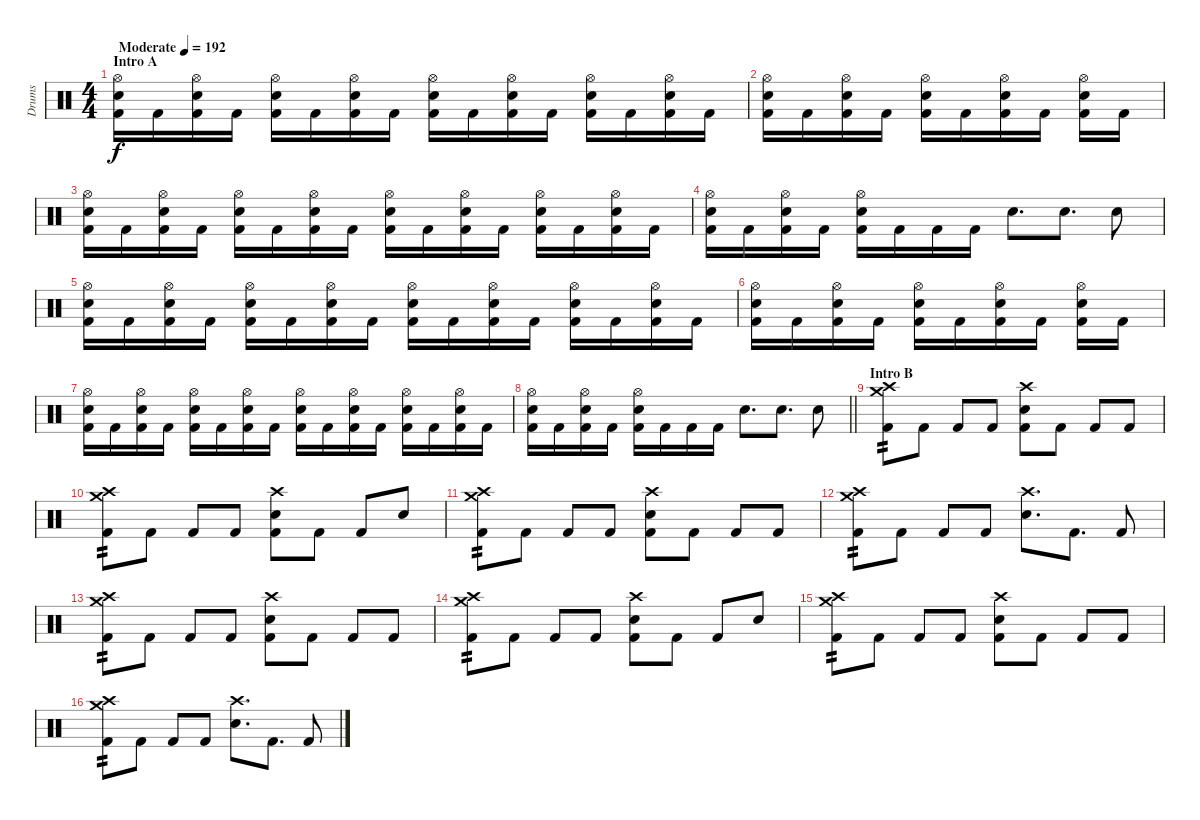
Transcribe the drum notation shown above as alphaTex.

\track ("Drums" "Drums") {instrument percussion}
\staff {score}
\articulation defaults
\ts (4 4)
\section ("" "Intro A")
\tempo (192 "Moderate")
\clef neutral
\ks c
("Hi-Hat (open)" "Snare (hit) 2" "Kick (hit) 2").16{dy f} "Kick (hit) 2".16 ("Hi-Hat (open)" "Snare (hit) 2" "Kick (hit) 2").16 "Kick (hit) 2".16 ("Hi-Hat (open)" "Snare (hit) 2" "Kick (hit) 2").16 "Kick (hit) 2".16 ("Hi-Hat (open)" "Snare (hit) 2" "Kick (hit) 2").16 "Kick (hit) 2".16 ("Hi-Hat (open)" "Snare (hit) 2" "Kick (hit) 2").16 "Kick (hit) 2".16 ("Hi-Hat (open)" "Snare (hit) 2" "Kick (hit) 2").16 "Kick (hit) 2".16 ("Hi-Hat (open)" "Snare (hit) 2" "Kick (hit) 2").16 "Kick (hit) 2".16 ("Hi-Hat (open)" "Snare (hit) 2" "Kick (hit) 2").16 "Kick (hit) 2".16 |
("Hi-Hat (open)" "Snare (hit) 2" "Kick (hit) 2").16 "Kick (hit) 2".16 ("Hi-Hat (open)" "Snare (hit) 2" "Kick (hit) 2").16 "Kick (hit) 2".16 ("Hi-Hat (open)" "Snare (hit) 2" "Kick (hit) 2").16 "Kick (hit) 2".16 ("Hi-Hat (open)" "Snare (hit) 2" "Kick (hit) 2").16 "Kick (hit) 2".16 ("Hi-Hat (open)" "Snare (hit) 2" "Kick (hit) 2").16 "Kick (hit) 2".16 |
("Hi-Hat (open)" "Snare (hit) 2" "Kick (hit) 2").16 "Kick (hit) 2".16 ("Hi-Hat (open)" "Snare (hit) 2" "Kick (hit) 2").16 "Kick (hit) 2".16 ("Hi-Hat (open)" "Snare (hit) 2" "Kick (hit) 2").16 "Kick (hit) 2".16 ("Hi-Hat (open)" "Snare (hit) 2" "Kick (hit) 2").16 "Kick (hit) 2".16 ("Hi-Hat (open)" "Snare (hit) 2" "Kick (hit) 2").16 "Kick (hit) 2".16 ("Hi-Hat (open)" "Snare (hit) 2" "Kick (hit) 2").16 "Kick (hit) 2".16 ("Hi-Hat (open)" "Snare (hit) 2" "Kick (hit) 2").16 "Kick (hit) 2".16 ("Hi-Hat (open)" "Snare (hit) 2" "Kick (hit) 2").16 "Kick (hit) 2".16 |
("Hi-Hat (open)" "Snare (hit) 2" "Kick (hit) 2").16 "Kick (hit) 2".16 ("Hi-Hat (open)" "Snare (hit) 2" "Kick (hit) 2").16 "Kick (hit) 2".16 ("Hi-Hat (open)" "Snare (hit) 2" "Kick (hit) 2").16 "Kick (hit) 2".16 "Kick (hit) 2".16 "Kick (hit) 2".16 "Snare (hit) 2".8{d} "Snare (hit) 2".8{d} "Snare (hit) 2".8 |
("Hi-Hat (open)" "Snare (hit) 2" "Kick (hit) 2").16 "Kick (hit) 2".16 ("Hi-Hat (open)" "Snare (hit) 2" "Kick (hit) 2").16 "Kick (hit) 2".16 ("Hi-Hat (open)" "Snare (hit) 2" "Kick (hit) 2").16 "Kick (hit) 2".16 ("Hi-Hat (open)" "Snare (hit) 2" "Kick (hit) 2").16 "Kick (hit) 2".16 ("Hi-Hat (open)" "Snare (hit) 2" "Kick (hit) 2").16 "Kick (hit) 2".16 ("Hi-Hat (open)" "Snare (hit) 2" "Kick (hit) 2").16 "Kick (hit) 2".16 ("Hi-Hat (open)" "Snare (hit) 2" "Kick (hit) 2").16 "Kick (hit) 2".16 ("Hi-Hat (open)" "Snare (hit) 2" "Kick (hit) 2").16 "Kick (hit) 2".16 |
("Hi-Hat (open)" "Snare (hit) 2" "Kick (hit) 2").16 "Kick (hit) 2".16 ("Hi-Hat (open)" "Snare (hit) 2" "Kick (hit) 2").16 "Kick (hit) 2".16 ("Hi-Hat (open)" "Snare (hit) 2" "Kick (hit) 2").16 "Kick (hit) 2".16 ("Hi-Hat (open)" "Snare (hit) 2" "Kick (hit) 2").16 "Kick (hit) 2".16 ("Hi-Hat (open)" "Snare (hit) 2" "Kick (hit) 2").16 "Kick (hit) 2".16 |
("Hi-Hat (open)" "Snare (hit) 2" "Kick (hit) 2").16 "Kick (hit) 2".16 ("Hi-Hat (open)" "Snare (hit) 2" "Kick (hit) 2").16 "Kick (hit) 2".16 ("Hi-Hat (open)" "Snare (hit) 2" "Kick (hit) 2").16 "Kick (hit) 2".16 ("Hi-Hat (open)" "Snare (hit) 2" "Kick (hit) 2").16 "Kick (hit) 2".16 ("Hi-Hat (open)" "Snare (hit) 2" "Kick (hit) 2").16 "Kick (hit) 2".16 ("Hi-Hat (open)" "Snare (hit) 2" "Kick (hit) 2").16 "Kick (hit) 2".16 ("Hi-Hat (open)" "Snare (hit) 2" "Kick (hit) 2").16 "Kick (hit) 2".16 ("Hi-Hat (open)" "Snare (hit) 2" "Kick (hit) 2").16 "Kick (hit) 2".16 |
\barLineRight lightlight
("Hi-Hat (open)" "Snare (hit) 2" "Kick (hit) 2").16 "Kick (hit) 2".16 ("Hi-Hat (open)" "Snare (hit) 2" "Kick (hit) 2").16 "Kick (hit) 2".16 ("Hi-Hat (open)" "Snare (hit) 2" "Kick (hit) 2").16 "Kick (hit) 2".16 "Kick (hit) 2".16 "Kick (hit) 2".16 "Snare (hit) 2".8{d} "Snare (hit) 2".8{d} "Snare (hit) 2".8 |
\section ("" "Intro B")
("Crash high (hit)" "Crash medium (hit)" "Kick (hit) 2").8{tp 2} "Kick (hit) 2".8 "Kick (hit) 2".8 "Kick (hit) 2".8 ("Crash high (hit)" "Snare (hit) 2" "Kick (hit) 2").8 "Kick (hit) 2".8 "Kick (hit) 2".8 "Kick (hit) 2".8 |
("Crash high (hit)" "Crash medium (hit)" "Kick (hit) 2").8{tp 2} "Kick (hit) 2".8 "Kick (hit) 2".8 "Kick (hit) 2".8 ("Crash high (hit)" "Snare (hit) 2" "Kick (hit) 2").8 "Kick (hit) 2".8 "Kick (hit) 2".8 "Snare (hit) 2".8 |
("Crash high (hit)" "Crash medium (hit)" "Kick (hit) 2").8{tp 2} "Kick (hit) 2".8 "Kick (hit) 2".8 "Kick (hit) 2".8 ("Crash high (hit)" "Snare (hit) 2" "Kick (hit) 2").8 "Kick (hit) 2".8 "Kick (hit) 2".8 "Kick (hit) 2".8 |
("Crash high (hit)" "Crash medium (hit)" "Kick (hit) 2").8{tp 2} "Kick (hit) 2".8 "Kick (hit) 2".8 "Kick (hit) 2".8 ("Crash high (hit)" "Snare (hit) 2").8{d} "Kick (hit) 2".8{d} "Kick (hit) 2".8 |
("Crash high (hit)" "Crash medium (hit)" "Kick (hit) 2").8{tp 2} "Kick (hit) 2".8 "Kick (hit) 2".8 "Kick (hit) 2".8 ("Crash high (hit)" "Snare (hit) 2" "Kick (hit) 2").8 "Kick (hit) 2".8 "Kick (hit) 2".8 "Kick (hit) 2".8 |
("Crash high (hit)" "Crash medium (hit)" "Kick (hit) 2").8{tp 2} "Kick (hit) 2".8 "Kick (hit) 2".8 "Kick (hit) 2".8 ("Crash high (hit)" "Snare (hit) 2" "Kick (hit) 2").8 "Kick (hit) 2".8 "Kick (hit) 2".8 "Snare (hit) 2".8 |
("Crash high (hit)" "Crash medium (hit)" "Kick (hit) 2").8{tp 2} "Kick (hit) 2".8 "Kick (hit) 2".8 "Kick (hit) 2".8 ("Crash high (hit)" "Snare (hit) 2" "Kick (hit) 2").8 "Kick (hit) 2".8 "Kick (hit) 2".8 "Kick (hit) 2".8 |
("Crash high (hit)" "Crash medium (hit)" "Kick (hit) 2").8{tp 2} "Kick (hit) 2".8 "Kick (hit) 2".8 "Kick (hit) 2".8 ("Crash high (hit)" "Snare (hit) 2").8{d} "Kick (hit) 2".8{d} "Kick (hit) 2".8
